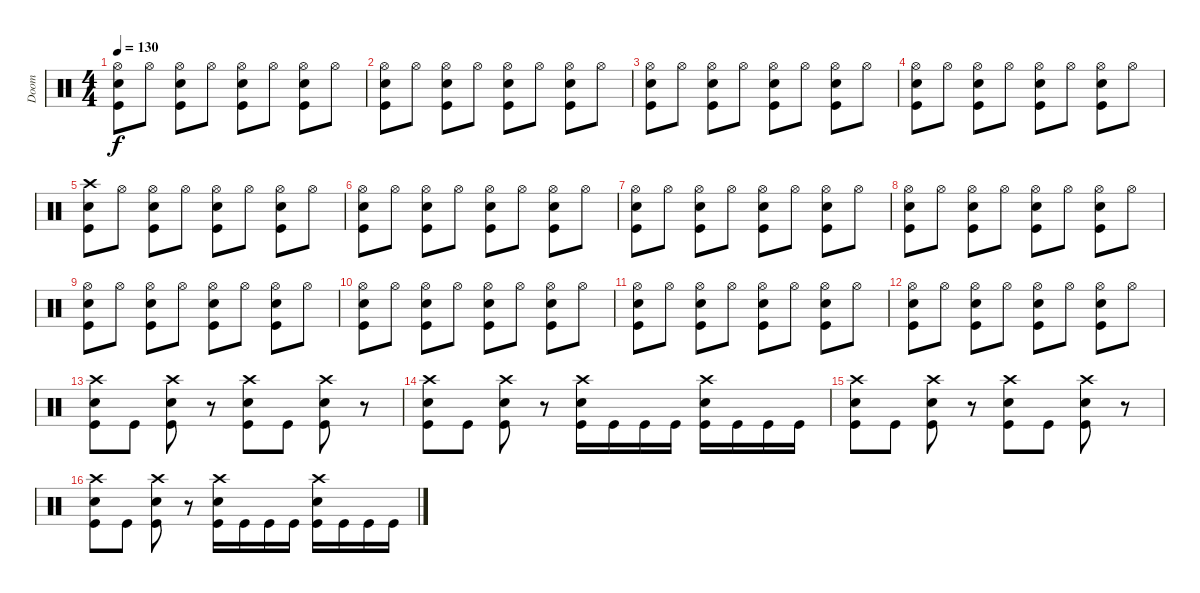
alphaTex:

\track ("Doom" "Doom") {instrument percussion}
\staff {score}
\articulation defaults
\ts (4 4)
\tempo 130
\clef neutral
\ks c
("Hi-Hat (open)" "Electric Snare (hit)" "Kick (hit)").8{dy f} "Hi-Hat (open)".8 ("Hi-Hat (open)" "Electric Snare (hit)" "Kick (hit)").8 "Hi-Hat (open)".8 ("Hi-Hat (open)" "Electric Snare (hit)" "Kick (hit)").8 "Hi-Hat (open)".8 ("Hi-Hat (open)" "Electric Snare (hit)" "Kick (hit)").8 "Hi-Hat (open)".8 |
("Hi-Hat (open)" "Electric Snare (hit)" "Kick (hit)").8 "Hi-Hat (open)".8 ("Hi-Hat (open)" "Electric Snare (hit)" "Kick (hit)").8 "Hi-Hat (open)".8 ("Hi-Hat (open)" "Electric Snare (hit)" "Kick (hit)").8 "Hi-Hat (open)".8 ("Hi-Hat (open)" "Electric Snare (hit)" "Kick (hit)").8 "Hi-Hat (open)".8 |
("Hi-Hat (open)" "Electric Snare (hit)" "Kick (hit)").8 "Hi-Hat (open)".8 ("Hi-Hat (open)" "Electric Snare (hit)" "Kick (hit)").8 "Hi-Hat (open)".8 ("Hi-Hat (open)" "Electric Snare (hit)" "Kick (hit)").8 "Hi-Hat (open)".8 ("Hi-Hat (open)" "Electric Snare (hit)" "Kick (hit)").8 "Hi-Hat (open)".8 |
("Hi-Hat (open)" "Electric Snare (hit)" "Kick (hit)").8 "Hi-Hat (open)".8 ("Hi-Hat (open)" "Electric Snare (hit)" "Kick (hit)").8 "Hi-Hat (open)".8 ("Hi-Hat (open)" "Electric Snare (hit)" "Kick (hit)").8 "Hi-Hat (open)".8 ("Hi-Hat (open)" "Electric Snare (hit)" "Kick (hit)").8 "Hi-Hat (open)".8 |
("Crash high (hit)" "Electric Snare (hit)" "Kick (hit)").8 "Hi-Hat (open)".8 ("Hi-Hat (open)" "Electric Snare (hit)" "Kick (hit)").8 "Hi-Hat (open)".8 ("Hi-Hat (open)" "Electric Snare (hit)" "Kick (hit)").8 "Hi-Hat (open)".8 ("Hi-Hat (open)" "Electric Snare (hit)" "Kick (hit)").8 "Hi-Hat (open)".8 |
("Hi-Hat (open)" "Electric Snare (hit)" "Kick (hit)").8 "Hi-Hat (open)".8 ("Hi-Hat (open)" "Electric Snare (hit)" "Kick (hit)").8 "Hi-Hat (open)".8 ("Hi-Hat (open)" "Electric Snare (hit)" "Kick (hit)").8 "Hi-Hat (open)".8 ("Hi-Hat (open)" "Electric Snare (hit)" "Kick (hit)").8 "Hi-Hat (open)".8 |
("Hi-Hat (open)" "Electric Snare (hit)" "Kick (hit)").8 "Hi-Hat (open)".8 ("Hi-Hat (open)" "Electric Snare (hit)" "Kick (hit)").8 "Hi-Hat (open)".8 ("Hi-Hat (open)" "Electric Snare (hit)" "Kick (hit)").8 "Hi-Hat (open)".8 ("Hi-Hat (open)" "Electric Snare (hit)" "Kick (hit)").8 "Hi-Hat (open)".8 |
("Hi-Hat (open)" "Electric Snare (hit)" "Kick (hit)").8 "Hi-Hat (open)".8 ("Hi-Hat (open)" "Electric Snare (hit)" "Kick (hit)").8 "Hi-Hat (open)".8 ("Hi-Hat (open)" "Electric Snare (hit)" "Kick (hit)").8 "Hi-Hat (open)".8 ("Hi-Hat (open)" "Electric Snare (hit)" "Kick (hit)").8 "Hi-Hat (open)".8 |
("Hi-Hat (open)" "Electric Snare (hit)" "Kick (hit)").8 "Hi-Hat (open)".8 ("Hi-Hat (open)" "Electric Snare (hit)" "Kick (hit)").8 "Hi-Hat (open)".8 ("Hi-Hat (open)" "Electric Snare (hit)" "Kick (hit)").8 "Hi-Hat (open)".8 ("Hi-Hat (open)" "Electric Snare (hit)" "Kick (hit)").8 "Hi-Hat (open)".8 |
("Hi-Hat (open)" "Electric Snare (hit)" "Kick (hit)").8 "Hi-Hat (open)".8 ("Hi-Hat (open)" "Electric Snare (hit)" "Kick (hit)").8 "Hi-Hat (open)".8 ("Hi-Hat (open)" "Electric Snare (hit)" "Kick (hit)").8 "Hi-Hat (open)".8 ("Hi-Hat (open)" "Electric Snare (hit)" "Kick (hit)").8 "Hi-Hat (open)".8 |
("Hi-Hat (open)" "Electric Snare (hit)" "Kick (hit)").8 "Hi-Hat (open)".8 ("Hi-Hat (open)" "Electric Snare (hit)" "Kick (hit)").8 "Hi-Hat (open)".8 ("Hi-Hat (open)" "Electric Snare (hit)" "Kick (hit)").8 "Hi-Hat (open)".8 ("Hi-Hat (open)" "Electric Snare (hit)" "Kick (hit)").8 "Hi-Hat (open)".8 |
("Hi-Hat (open)" "Electric Snare (hit)" "Kick (hit)").8 "Hi-Hat (open)".8 ("Hi-Hat (open)" "Electric Snare (hit)" "Kick (hit)").8 "Hi-Hat (open)".8 ("Hi-Hat (open)" "Electric Snare (hit)" "Kick (hit)").8 "Hi-Hat (open)".8 ("Hi-Hat (open)" "Electric Snare (hit)" "Kick (hit)").8 "Hi-Hat (open)".8 |
("Crash high (hit)" "Electric Snare (hit)" "Kick (hit)").8 "Kick (hit)".8 ("Crash high (hit)" "Electric Snare (hit)" "Kick (hit)").8 r.8 ("Crash high (hit)" "Electric Snare (hit)" "Kick (hit)").8 "Kick (hit)".8 ("Crash high (hit)" "Electric Snare (hit)" "Kick (hit)").8 r.8 |
("Crash high (hit)" "Electric Snare (hit)" "Kick (hit)").8 "Kick (hit)".8 ("Crash high (hit)" "Electric Snare (hit)" "Kick (hit)").8 r.8 ("Crash high (hit)" "Electric Snare (hit)" "Kick (hit)").16 "Kick (hit)".16 "Kick (hit)".16 "Kick (hit)".16 ("Crash high (hit)" "Electric Snare (hit)" "Kick (hit)").16 "Kick (hit)".16 "Kick (hit)".16 "Kick (hit)".16 |
("Crash high (hit)" "Electric Snare (hit)" "Kick (hit)").8 "Kick (hit)".8 ("Crash high (hit)" "Electric Snare (hit)" "Kick (hit)").8 r.8 ("Crash high (hit)" "Electric Snare (hit)" "Kick (hit)").8 "Kick (hit)".8 ("Crash high (hit)" "Electric Snare (hit)" "Kick (hit)").8 r.8 |
("Crash high (hit)" "Electric Snare (hit)" "Kick (hit)").8 "Kick (hit)".8 ("Crash high (hit)" "Electric Snare (hit)" "Kick (hit)").8 r.8 ("Crash high (hit)" "Electric Snare (hit)" "Kick (hit)").16 "Kick (hit)".16 "Kick (hit)".16 "Kick (hit)".16 ("Crash high (hit)" "Electric Snare (hit)" "Kick (hit)").16 "Kick (hit)".16 "Kick (hit)".16 "Kick (hit)".16
